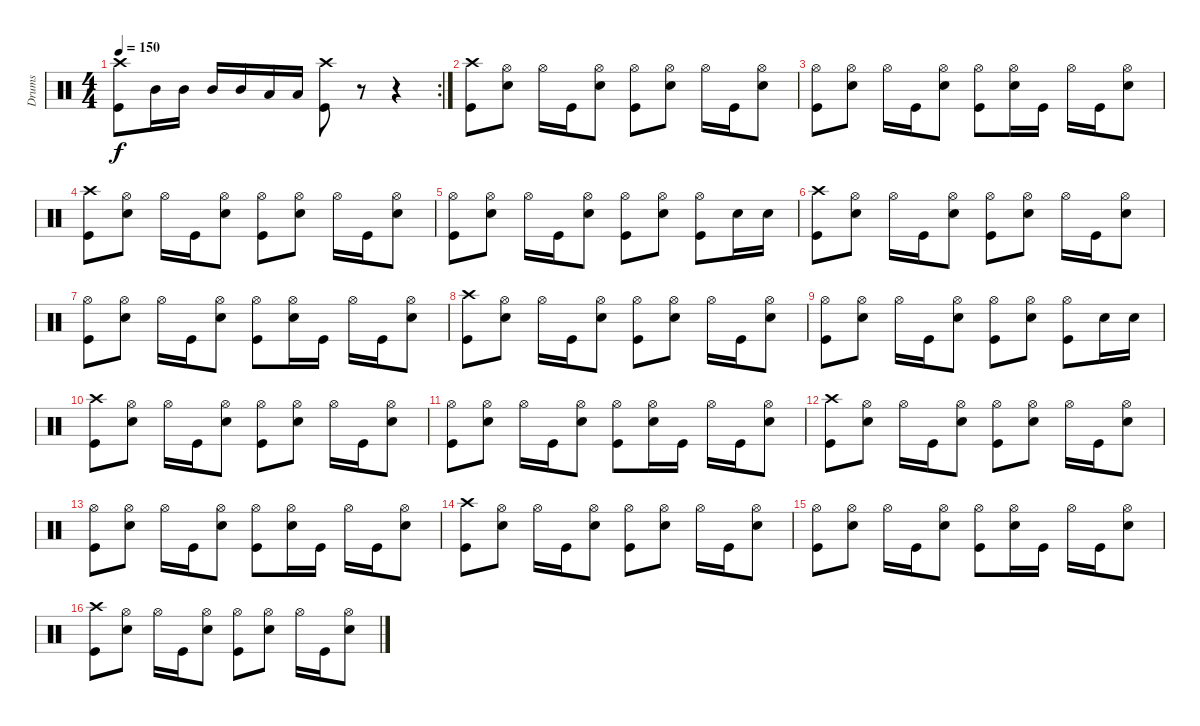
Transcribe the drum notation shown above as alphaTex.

\track ("Drums" "Drums") {instrument percussion}
\staff {score}
\articulation defaults
\rc 2
\ts (4 4)
\tempo 150
\clef neutral
\ks c
("Crash high (hit)" "Kick (hit)").8{dy f} "Mid Tom (hit)".16 "Mid Tom (hit)".16 "Mid Tom (hit)".16 "Mid Tom (hit)".16 "Low Tom (hit)".16 "Low Tom (hit)".16 ("Crash high (hit)" "Kick (hit)").8 r.8 r.4 |
("Crash high (hit)" "Kick (hit)").8 ("Hi-Hat (open)" "Snare (hit) 2").8 "Hi-Hat (open)".16 "Kick (hit)".16 ("Hi-Hat (open)" "Snare (hit) 2").8 ("Hi-Hat (open)" "Kick (hit)").8 ("Hi-Hat (open)" "Snare (hit) 2").8 "Hi-Hat (open)".16 "Kick (hit)".16 ("Hi-Hat (open)" "Snare (hit) 2").8 |
("Hi-Hat (open)" "Kick (hit)").8 ("Hi-Hat (open)" "Snare (hit) 2").8 "Hi-Hat (open)".16 "Kick (hit)".16 ("Hi-Hat (open)" "Snare (hit) 2").8 ("Hi-Hat (open)" "Kick (hit)").8 ("Hi-Hat (open)" "Snare (hit) 2").16 "Kick (hit)".16 "Hi-Hat (open)".16 "Kick (hit)".16 ("Hi-Hat (open)" "Snare (hit) 2").8 |
("Crash high (hit)" "Kick (hit)").8 ("Hi-Hat (open)" "Snare (hit) 2").8 "Hi-Hat (open)".16 "Kick (hit)".16 ("Hi-Hat (open)" "Snare (hit) 2").8 ("Hi-Hat (open)" "Kick (hit)").8 ("Hi-Hat (open)" "Snare (hit) 2").8 "Hi-Hat (open)".16 "Kick (hit)".16 ("Hi-Hat (open)" "Snare (hit) 2").8 |
("Hi-Hat (open)" "Kick (hit)").8 ("Hi-Hat (open)" "Snare (hit) 2").8 "Hi-Hat (open)".16 "Kick (hit)".16 ("Hi-Hat (open)" "Snare (hit) 2").8 ("Hi-Hat (open)" "Kick (hit)").8 ("Hi-Hat (open)" "Snare (hit) 2").8 ("Hi-Hat (open)" "Kick (hit)").8 "Snare (hit) 2".16 "Snare (hit) 2".16 |
("Crash high (hit)" "Kick (hit)").8 ("Hi-Hat (open)" "Snare (hit) 2").8 "Hi-Hat (open)".16 "Kick (hit)".16 ("Hi-Hat (open)" "Snare (hit) 2").8 ("Hi-Hat (open)" "Kick (hit)").8 ("Hi-Hat (open)" "Snare (hit) 2").8 "Hi-Hat (open)".16 "Kick (hit)".16 ("Hi-Hat (open)" "Snare (hit) 2").8 |
("Hi-Hat (open)" "Kick (hit)").8 ("Hi-Hat (open)" "Snare (hit) 2").8 "Hi-Hat (open)".16 "Kick (hit)".16 ("Hi-Hat (open)" "Snare (hit) 2").8 ("Hi-Hat (open)" "Kick (hit)").8 ("Hi-Hat (open)" "Snare (hit) 2").16 "Kick (hit)".16 "Hi-Hat (open)".16 "Kick (hit)".16 ("Hi-Hat (open)" "Snare (hit) 2").8 |
("Crash high (hit)" "Kick (hit)").8 ("Hi-Hat (open)" "Snare (hit) 2").8 "Hi-Hat (open)".16 "Kick (hit)".16 ("Hi-Hat (open)" "Snare (hit) 2").8 ("Hi-Hat (open)" "Kick (hit)").8 ("Hi-Hat (open)" "Snare (hit) 2").8 "Hi-Hat (open)".16 "Kick (hit)".16 ("Hi-Hat (open)" "Snare (hit) 2").8 |
("Hi-Hat (open)" "Kick (hit)").8 ("Hi-Hat (open)" "Snare (hit) 2").8 "Hi-Hat (open)".16 "Kick (hit)".16 ("Hi-Hat (open)" "Snare (hit) 2").8 ("Hi-Hat (open)" "Kick (hit)").8 ("Hi-Hat (open)" "Snare (hit) 2").8 ("Hi-Hat (open)" "Kick (hit)").8 "Snare (hit) 2".16 "Snare (hit) 2".16 |
("Crash high (hit)" "Kick (hit)").8 ("Hi-Hat (open)" "Snare (hit) 2").8 "Hi-Hat (open)".16 "Kick (hit)".16 ("Hi-Hat (open)" "Snare (hit) 2").8 ("Hi-Hat (open)" "Kick (hit)").8 ("Hi-Hat (open)" "Snare (hit) 2").8 "Hi-Hat (open)".16 "Kick (hit)".16 ("Hi-Hat (open)" "Snare (hit) 2").8 |
("Hi-Hat (open)" "Kick (hit)").8 ("Hi-Hat (open)" "Snare (hit) 2").8 "Hi-Hat (open)".16 "Kick (hit)".16 ("Hi-Hat (open)" "Snare (hit) 2").8 ("Hi-Hat (open)" "Kick (hit)").8 ("Hi-Hat (open)" "Snare (hit) 2").16 "Kick (hit)".16 "Hi-Hat (open)".16 "Kick (hit)".16 ("Hi-Hat (open)" "Snare (hit) 2").8 |
("Crash high (hit)" "Kick (hit)").8 ("Hi-Hat (open)" "Snare (hit) 2").8 "Hi-Hat (open)".16 "Kick (hit)".16 ("Hi-Hat (open)" "Snare (hit) 2").8 ("Hi-Hat (open)" "Kick (hit)").8 ("Hi-Hat (open)" "Snare (hit) 2").8 "Hi-Hat (open)".16 "Kick (hit)".16 ("Hi-Hat (open)" "Snare (hit) 2").8 |
("Hi-Hat (open)" "Kick (hit)").8 ("Hi-Hat (open)" "Snare (hit) 2").8 "Hi-Hat (open)".16 "Kick (hit)".16 ("Hi-Hat (open)" "Snare (hit) 2").8 ("Hi-Hat (open)" "Kick (hit)").8 ("Hi-Hat (open)" "Snare (hit) 2").16 "Kick (hit)".16 "Hi-Hat (open)".16 "Kick (hit)".16 ("Hi-Hat (open)" "Snare (hit) 2").8 |
("Crash high (hit)" "Kick (hit)").8 ("Hi-Hat (open)" "Snare (hit) 2").8 "Hi-Hat (open)".16 "Kick (hit)".16 ("Hi-Hat (open)" "Snare (hit) 2").8 ("Hi-Hat (open)" "Kick (hit)").8 ("Hi-Hat (open)" "Snare (hit) 2").8 "Hi-Hat (open)".16 "Kick (hit)".16 ("Hi-Hat (open)" "Snare (hit) 2").8 |
("Hi-Hat (open)" "Kick (hit)").8 ("Hi-Hat (open)" "Snare (hit) 2").8 "Hi-Hat (open)".16 "Kick (hit)".16 ("Hi-Hat (open)" "Snare (hit) 2").8 ("Hi-Hat (open)" "Kick (hit)").8 ("Hi-Hat (open)" "Snare (hit) 2").16 "Kick (hit)".16 "Hi-Hat (open)".16 "Kick (hit)".16 ("Hi-Hat (open)" "Snare (hit) 2").8 |
("Crash high (hit)" "Kick (hit)").8 ("Hi-Hat (open)" "Snare (hit) 2").8 "Hi-Hat (open)".16 "Kick (hit)".16 ("Hi-Hat (open)" "Snare (hit) 2").8 ("Hi-Hat (open)" "Kick (hit)").8 ("Hi-Hat (open)" "Snare (hit) 2").8 "Hi-Hat (open)".16 "Kick (hit)".16 ("Hi-Hat (open)" "Snare (hit) 2").8
